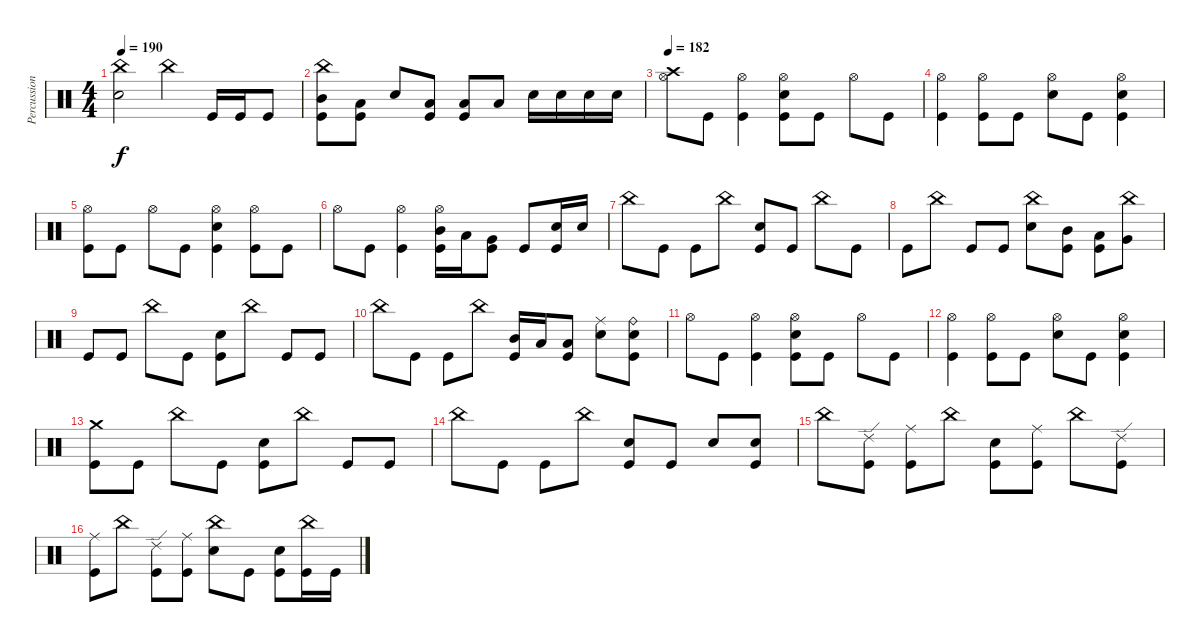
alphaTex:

\track ("Percussion" "Percussion") {instrument percussion}
\staff {score}
\articulation defaults
\ts (4 4)
\tempo 190
\clef neutral
\ks c
("China (hit)" "Snare (hit) 2").2{dy f} "China (hit)".4 "Kick (hit)".16 "Kick (hit)".16 "Kick (hit)".8 |
("China (hit)" "Mid Tom (hit)" "Kick (hit)").8 ("Low Tom (hit)" "Kick (hit)").8 "Snare (hit) 2".8 ("Low Tom (hit)" "Kick (hit)").8 ("Low Tom (hit)" "Kick (hit)").8 "Low Tom (hit)".8 "Snare (hit) 2".16 "Snare (hit) 2".16 "Snare (hit) 2".16 "Snare (hit) 2".16 |
\tempo 182
("Crash high (hit)" "Hi-Hat (open)").8 "Kick (hit)".8 ("Hi-Hat (open)" "Kick (hit)").4 ("Hi-Hat (open)" "Snare (hit) 2" "Kick (hit)").8 "Kick (hit)".8 "Hi-Hat (open)".8 "Kick (hit)".8 |
("Hi-Hat (open)" "Kick (hit)").4 ("Hi-Hat (open)" "Kick (hit)").8 "Kick (hit)".8 ("Hi-Hat (open)" "Snare (hit) 2").8 "Kick (hit)".8 ("Hi-Hat (open)" "Snare (hit) 2" "Kick (hit)").4 |
("Hi-Hat (open)" "Kick (hit)").8 "Kick (hit)".8 "Hi-Hat (open)".8 "Kick (hit)".8 ("Hi-Hat (open)" "Snare (hit) 2" "Kick (hit)").4 ("Hi-Hat (open)" "Kick (hit)").8 "Kick (hit)".8 |
"Hi-Hat (open)".8 "Kick (hit)".8 ("Hi-Hat (open)" "Kick (hit)").4 ("Hi-Hat (open)" "Mid Tom (hit)" "Kick (hit)").16 "Low Tom (hit)".16 ("Very Low Tom (hit)" "Kick (hit)").8 "Kick (hit)".8 ("Snare (hit) 2" "Kick (hit)").16 "Snare (hit) 2".16 |
"China (hit)".8 "Kick (hit)".8 "Kick (hit)".8 "China (hit)".8 ("Snare (hit) 2" "Kick (hit)").8 "Kick (hit)".8 "China (hit)".8 "Kick (hit)".8 |
"Kick (hit)".8 "China (hit)".8 "Kick (hit)".8 "Kick (hit)".8 ("China (hit)" "Snare (hit) 2").8 ("Mid Tom (hit)" "Kick (hit)").8 ("Low Tom (hit)" "Kick (hit)").8 ("China (hit)" "Very Low Tom (hit)").8 |
"Kick (hit)".8 "Kick (hit)".8 "China (hit)".8 "Kick (hit)".8 ("Snare (hit) 2" "Kick (hit)").8 "China (hit)".8 "Kick (hit)".8 "Kick (hit)".8 |
"China (hit)".8 "Kick (hit)".8 "Kick (hit)".8 "China (hit)".8 ("Mid Tom (hit)" "Kick (hit)").16 "Low Tom (hit)".16 ("Low Tom (hit)" "Kick (hit)").8 ("Ride (middle)" "Snare (hit) 2").8 ("Ride (bell)" "Snare (hit) 2" "Kick (hit)").8 |
"Hi-Hat (open)".8 "Kick (hit)".8 ("Hi-Hat (open)" "Kick (hit)").4 ("Hi-Hat (open)" "Snare (hit) 2" "Kick (hit)").8 "Kick (hit)".8 "Hi-Hat (open)".8 "Kick (hit)".8 |
("Hi-Hat (open)" "Kick (hit)").4 ("Hi-Hat (open)" "Kick (hit)").8 "Kick (hit)".8 ("Hi-Hat (open)" "Snare (hit) 2").8 "Kick (hit)".8 ("Hi-Hat (open)" "Snare (hit) 2" "Kick (hit)").4 |
("Crash medium (hit)" "Kick (hit)").8 "Kick (hit)".8 "China (hit)".8 "Kick (hit)".8 ("Snare (hit) 2" "Kick (hit)").8 "China (hit)".8 "Kick (hit)".8 "Kick (hit)".8 |
"China (hit)".8 "Kick (hit)".8 "Kick (hit)".8 "China (hit)".8 ("Snare (hit) 2" "Kick (hit)").8 "Kick (hit)".8 "Snare (hit) 2".8 ("Snare (hit) 2" "Kick (hit)").8 |
"China (hit)".8 ("Ride (edge) 2" "Kick (hit)").8 ("Ride (middle)" "Kick (hit)").8 "China (hit)".8 ("Snare (hit) 2" "Kick (hit)").8 ("Ride (middle)" "Kick (hit)").8 "China (hit)".8 ("Ride (edge) 2" "Kick (hit)").8 |
("Ride (middle)" "Kick (hit)").8 "China (hit)".8 ("Ride (edge) 2" "Kick (hit)").8 ("Ride (middle)" "Kick (hit)").8 ("China (hit)" "Snare (hit) 2").8 "Kick (hit)".8 ("Snare (hit) 2" "Kick (hit)").8 ("China (hit)" "Kick (hit)").16 "Kick (hit)".16
